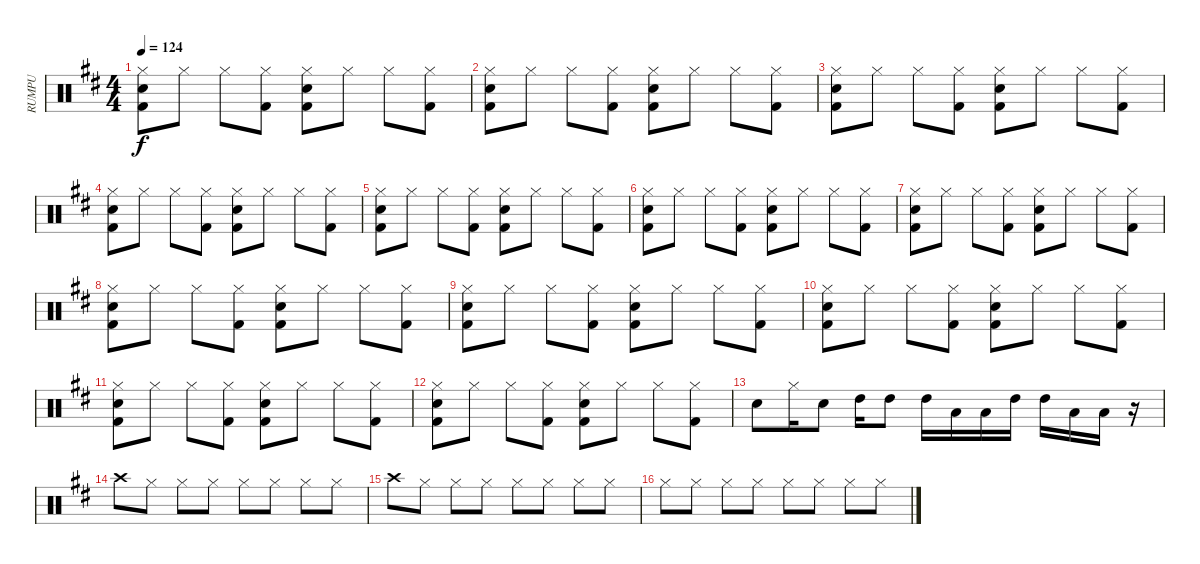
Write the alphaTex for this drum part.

\track ("RUMPU" "RUMPU") {instrument percussion}
\staff {score}
\articulation defaults
\ts (4 4)
\tempo 124
\clef neutral
\ks d
("Hi-Hat (closed)" "Kick (hit) 2" "Electric Snare (hit)").8{dy f} "Hi-Hat (closed)".8 "Hi-Hat (closed)".8 ("Hi-Hat (closed)" "Kick (hit) 2").8 ("Hi-Hat (closed)" "Kick (hit) 2" "Electric Snare (hit)").8 "Hi-Hat (closed)".8 "Hi-Hat (closed)".8 ("Hi-Hat (closed)" "Kick (hit) 2").8 |
("Hi-Hat (closed)" "Kick (hit) 2" "Electric Snare (hit)").8 "Hi-Hat (closed)".8 "Hi-Hat (closed)".8 ("Hi-Hat (closed)" "Kick (hit) 2").8 ("Hi-Hat (closed)" "Kick (hit) 2" "Electric Snare (hit)").8 "Hi-Hat (closed)".8 "Hi-Hat (closed)".8 ("Hi-Hat (closed)" "Kick (hit) 2").8 |
("Hi-Hat (closed)" "Kick (hit) 2" "Electric Snare (hit)").8 "Hi-Hat (closed)".8 "Hi-Hat (closed)".8 ("Hi-Hat (closed)" "Kick (hit) 2").8 ("Hi-Hat (closed)" "Kick (hit) 2" "Electric Snare (hit)").8 "Hi-Hat (closed)".8 "Hi-Hat (closed)".8 ("Hi-Hat (closed)" "Kick (hit) 2").8 |
("Hi-Hat (closed)" "Kick (hit) 2" "Electric Snare (hit)").8 "Hi-Hat (closed)".8 "Hi-Hat (closed)".8 ("Hi-Hat (closed)" "Kick (hit) 2").8 ("Hi-Hat (closed)" "Kick (hit) 2" "Electric Snare (hit)").8 "Hi-Hat (closed)".8 "Hi-Hat (closed)".8 ("Hi-Hat (closed)" "Kick (hit) 2").8 |
("Hi-Hat (closed)" "Kick (hit) 2" "Electric Snare (hit)").8 "Hi-Hat (closed)".8 "Hi-Hat (closed)".8 ("Hi-Hat (closed)" "Kick (hit) 2").8 ("Hi-Hat (closed)" "Kick (hit) 2" "Electric Snare (hit)").8 "Hi-Hat (closed)".8 "Hi-Hat (closed)".8 ("Hi-Hat (closed)" "Kick (hit) 2").8 |
("Hi-Hat (closed)" "Kick (hit) 2" "Electric Snare (hit)").8 "Hi-Hat (closed)".8 "Hi-Hat (closed)".8 ("Hi-Hat (closed)" "Kick (hit) 2").8 ("Hi-Hat (closed)" "Kick (hit) 2" "Electric Snare (hit)").8 "Hi-Hat (closed)".8 "Hi-Hat (closed)".8 ("Hi-Hat (closed)" "Kick (hit) 2").8 |
("Hi-Hat (closed)" "Kick (hit) 2" "Electric Snare (hit)").8 "Hi-Hat (closed)".8 "Hi-Hat (closed)".8 ("Hi-Hat (closed)" "Kick (hit) 2").8 ("Hi-Hat (closed)" "Kick (hit) 2" "Electric Snare (hit)").8 "Hi-Hat (closed)".8 "Hi-Hat (closed)".8 ("Hi-Hat (closed)" "Kick (hit) 2").8 |
("Hi-Hat (closed)" "Kick (hit) 2" "Electric Snare (hit)").8 "Hi-Hat (closed)".8 "Hi-Hat (closed)".8 ("Hi-Hat (closed)" "Kick (hit) 2").8 ("Hi-Hat (closed)" "Kick (hit) 2" "Electric Snare (hit)").8 "Hi-Hat (closed)".8 "Hi-Hat (closed)".8 ("Hi-Hat (closed)" "Kick (hit) 2").8 |
("Hi-Hat (closed)" "Kick (hit) 2" "Electric Snare (hit)").8 "Hi-Hat (closed)".8 "Hi-Hat (closed)".8 ("Hi-Hat (closed)" "Kick (hit) 2").8 ("Hi-Hat (closed)" "Kick (hit) 2" "Electric Snare (hit)").8 "Hi-Hat (closed)".8 "Hi-Hat (closed)".8 ("Hi-Hat (closed)" "Kick (hit) 2").8 |
("Hi-Hat (closed)" "Kick (hit) 2" "Electric Snare (hit)").8 "Hi-Hat (closed)".8 "Hi-Hat (closed)".8 ("Hi-Hat (closed)" "Kick (hit) 2").8 ("Hi-Hat (closed)" "Kick (hit) 2" "Electric Snare (hit)").8 "Hi-Hat (closed)".8 "Hi-Hat (closed)".8 ("Hi-Hat (closed)" "Kick (hit) 2").8 |
("Hi-Hat (closed)" "Kick (hit) 2" "Electric Snare (hit)").8 "Hi-Hat (closed)".8 "Hi-Hat (closed)".8 ("Hi-Hat (closed)" "Kick (hit) 2").8 ("Hi-Hat (closed)" "Kick (hit) 2" "Electric Snare (hit)").8 "Hi-Hat (closed)".8 "Hi-Hat (closed)".8 ("Hi-Hat (closed)" "Kick (hit) 2").8 |
("Hi-Hat (closed)" "Kick (hit) 2" "Electric Snare (hit)").8 "Hi-Hat (closed)".8 "Hi-Hat (closed)".8 ("Hi-Hat (closed)" "Kick (hit) 2").8 ("Hi-Hat (closed)" "Kick (hit) 2" "Electric Snare (hit)").8 "Hi-Hat (closed)".8 "Hi-Hat (closed)".8 ("Hi-Hat (closed)" "Kick (hit) 2").8 |
"Electric Snare (hit)".8 "Hi-Hat (closed)".16 "Electric Snare (hit)".8 "High Tom (hit)".16 "High Tom (hit)".8 "High Tom (hit)".16 "Low Tom (hit)".16 "Low Tom (hit)".16 "High Tom (hit)".16 "High Tom (hit)".16 "Low Floor Tom (hit)".16 "Low Floor Tom (hit)".16 r.16 |
"Crash high (hit)".8 "Hi-Hat (closed)".8 "Hi-Hat (closed)".8 "Hi-Hat (closed)".8 "Hi-Hat (closed)".8 "Hi-Hat (closed)".8 "Hi-Hat (closed)".8 "Hi-Hat (closed)".8 |
"Crash high (hit)".8 "Hi-Hat (closed)".8 "Hi-Hat (closed)".8 "Hi-Hat (closed)".8 "Hi-Hat (closed)".8 "Hi-Hat (closed)".8 "Hi-Hat (closed)".8 "Hi-Hat (closed)".8 |
"Hi-Hat (closed)".8 "Hi-Hat (closed)".8 "Hi-Hat (closed)".8 "Hi-Hat (closed)".8 "Hi-Hat (closed)".8 "Hi-Hat (closed)".8 "Hi-Hat (closed)".8 "Hi-Hat (closed)".8
